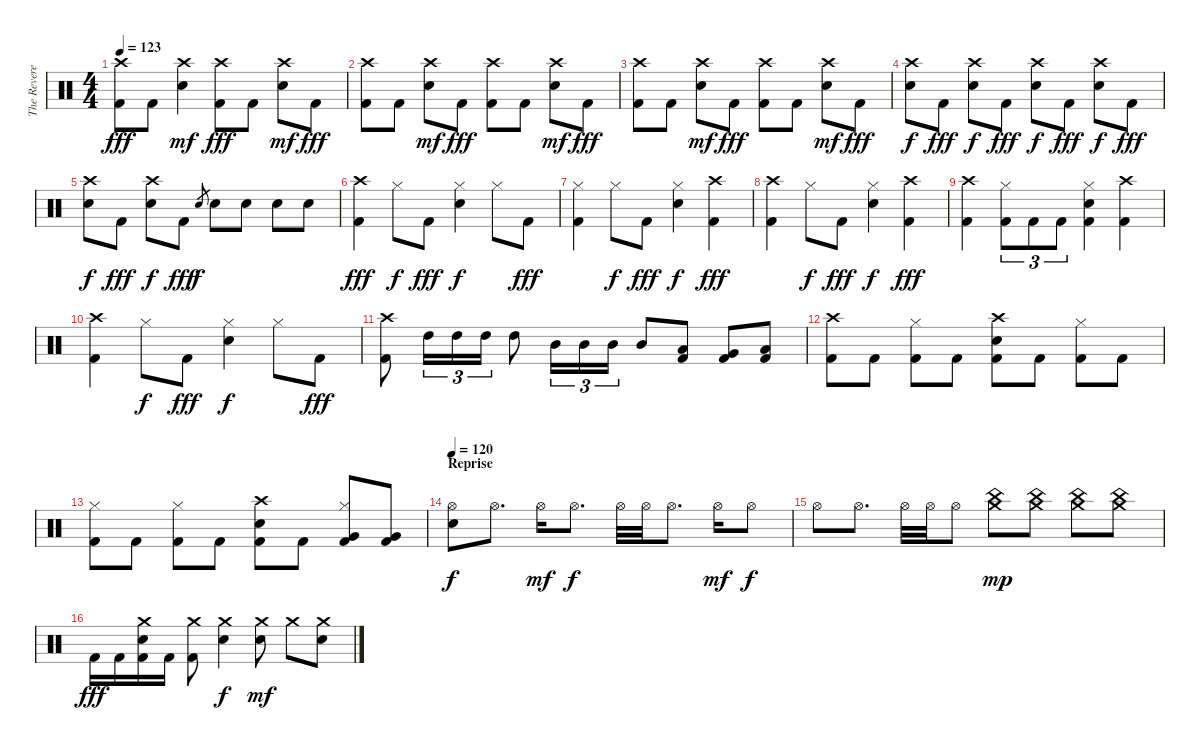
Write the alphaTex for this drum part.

\track ("The Reverend" "The Revere") {instrument percussion}
\staff {score}
\articulation defaults
\ts (4 4)
\tempo 123
\clef neutral
\ks c
("Crash high (hit)" "Kick (hit) 2").8{dy fff} "Kick (hit) 2".8 ("Crash high (hit)" "Electric Snare (hit)").4{dy mf} ("Crash high (hit)" "Kick (hit) 2").8{dy fff} "Kick (hit) 2".8 ("Crash high (hit)" "Electric Snare (hit)").8{dy mf} "Kick (hit) 2".8{dy fff} |
("Crash high (hit)" "Kick (hit) 2").8 "Kick (hit) 2".8 ("Crash high (hit)" "Electric Snare (hit)").8{dy mf} "Kick (hit) 2".8{dy fff} ("Crash high (hit)" "Kick (hit) 2").8 "Kick (hit) 2".8 ("Crash high (hit)" "Electric Snare (hit)").8{dy mf} "Kick (hit) 2".8{dy fff} |
("Crash high (hit)" "Kick (hit) 2").8 "Kick (hit) 2".8 ("Crash high (hit)" "Electric Snare (hit)").8{dy mf} "Kick (hit) 2".8{dy fff} ("Crash high (hit)" "Kick (hit) 2").8 "Kick (hit) 2".8 ("Crash high (hit)" "Electric Snare (hit)").8{dy mf} "Kick (hit) 2".8{dy fff} |
("Crash high (hit)" "Electric Snare (hit)").8{dy f} "Kick (hit) 2".8{dy fff} ("Crash high (hit)" "Electric Snare (hit)").8{dy f} "Kick (hit) 2".8{dy fff} ("Crash high (hit)" "Electric Snare (hit)").8{dy f} "Kick (hit) 2".8{dy fff} ("Crash high (hit)" "Electric Snare (hit)").8{dy f} "Kick (hit) 2".8{dy fff} |
("Crash high (hit)" "Electric Snare (hit)").8{dy f} "Kick (hit) 2".8{dy fff} ("Crash high (hit)" "Electric Snare (hit)").8{dy f} "Kick (hit) 2".8{dy fff} "Electric Snare (hit)".8{gr dy f} "Electric Snare (hit)".8 "Electric Snare (hit)".8 "Electric Snare (hit)".8 "Electric Snare (hit)".8 |
("Crash high (hit)" "Kick (hit) 2").4{dy fff} "Hi-Hat (closed)".8{dy f} "Kick (hit) 2".8{dy fff} ("Hi-Hat (closed)" "Electric Snare (hit)").4{dy f} "Hi-Hat (closed)".8 "Kick (hit) 2".8{dy fff} |
("Hi-Hat (closed)" "Kick (hit) 2").4 "Hi-Hat (closed)".8{dy f} "Kick (hit) 2".8{dy fff} ("Hi-Hat (closed)" "Electric Snare (hit)").4{dy f} ("Crash high (hit)" "Kick (hit) 2").4{dy fff} |
("Crash high (hit)" "Kick (hit) 2").4 "Hi-Hat (closed)".8{dy f} "Kick (hit) 2".8{dy fff} ("Hi-Hat (closed)" "Electric Snare (hit)").4{dy f} ("Crash high (hit)" "Kick (hit) 2").4{dy fff} |
("Crash high (hit)" "Kick (hit) 2").4 ("Hi-Hat (closed)" "Kick (hit) 2").8{tu (3 2)} "Kick (hit) 2".8{tu (3 2)} "Kick (hit) 2".8{tu (3 2)} ("Hi-Hat (closed)" "Electric Snare (hit)" "Kick (hit) 2").4 ("Crash high (hit)" "Kick (hit) 2").4 |
("Crash high (hit)" "Kick (hit) 2").4 "Hi-Hat (closed)".8{dy f} "Kick (hit) 2".8{dy fff} ("Hi-Hat (closed)" "Electric Snare (hit)").4{dy f} "Hi-Hat (closed)".8 "Kick (hit) 2".8{dy fff} |
("Crash high (hit)" "Kick (hit) 2").8 "High Tom (hit)".16{tu (3 2)} "High Tom (hit)".16{tu (3 2)} "High Tom (hit)".16{tu (3 2)} "High Tom (hit)".8 "Mid Tom (hit)".16{tu (3 2)} "Mid Tom (hit)".16{tu (3 2)} "Mid Tom (hit)".16{tu (3 2)} "Mid Tom (hit)".8 ("Low Tom (hit)" "Kick (hit) 2").8 ("Very Low Tom (hit)" "Kick (hit) 2").8 ("Low Floor Tom (hit)" "Kick (hit) 2").8 |
("Crash high (hit)" "Kick (hit) 2").8 "Kick (hit) 2".8 ("Hi-Hat (closed)" "Kick (hit) 2").8 "Kick (hit) 2".8 ("Crash high (hit)" "Electric Snare (hit)" "Kick (hit) 2").8 "Kick (hit) 2".8 ("Hi-Hat (closed)" "Kick (hit) 2").8 "Kick (hit) 2".8 |
("Hi-Hat (closed)" "Kick (hit) 2").8 "Kick (hit) 2".8 ("Hi-Hat (closed)" "Kick (hit) 2").8 "Kick (hit) 2".8 ("Crash high (hit)" "Electric Snare (hit)" "Kick (hit) 2").8 "Kick (hit) 2".8 ("Hi-Hat (closed)" "Very Low Tom (hit)" "Kick (hit) 2").8 ("Very Low Tom (hit)" "Kick (hit) 2").8 |
\section ("" "Reprise")
\tempo 120
("Hi-Hat (open)" "Electric Snare (hit)").8{dy f} "Hi-Hat (open)".8{d} "Hi-Hat (open)".16{dy mf} "Hi-Hat (open)".8{d dy f} "Hi-Hat (open)".32 "Hi-Hat (open)".32 "Hi-Hat (open)".8{d} "Hi-Hat (open)".16{dy mf} "Hi-Hat (open)".8{dy f} |
"Hi-Hat (open)".8 "Hi-Hat (open)".8{d} "Hi-Hat (open)".32 "Hi-Hat (open)".32 "Hi-Hat (open)".8 ("Crash medium (hit)" "China (hit)").8{dy mp} ("Crash medium (hit)" "China (hit)").8 ("Crash medium (hit)" "China (hit)").8 ("Crash medium (hit)" "China (hit)").8 |
"Kick (hit) 2".16{dy fff} "Kick (hit) 2".16 ("Crash medium (hit)" "Electric Snare (hit)" "Kick (hit) 2").16 "Kick (hit) 2".16 ("Crash medium (hit)" "Kick (hit) 2").8 ("Crash medium (hit)" "Electric Snare (hit)").4{dy f} ("Crash medium (hit)" "Electric Snare (hit)").8{dy mf} "Crash medium (hit)".8 ("Crash medium (hit)" "Electric Snare (hit)").8
